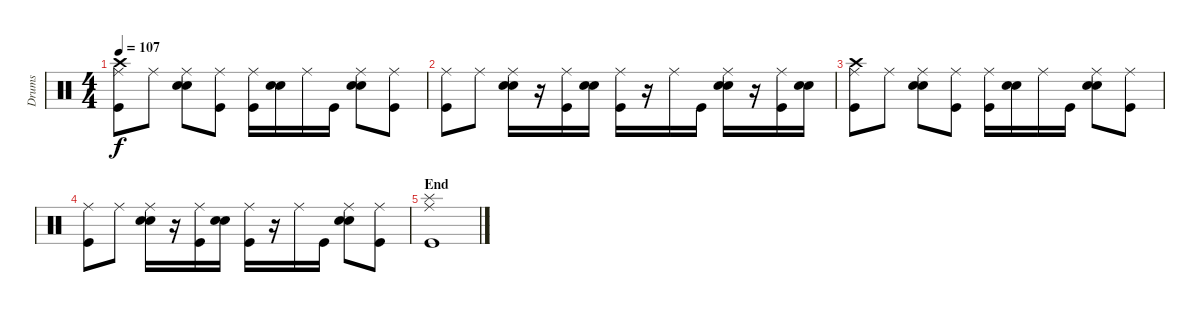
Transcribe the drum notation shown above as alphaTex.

\track ("Drums" "Drums") {instrument percussion}
\staff {score}
\articulation defaults
\ts (4 4)
\tempo 107
\clef neutral
\ks c
("Crash high (hit)" "Ride (middle)" "Kick (hit)").8{dy f} "Ride (middle)".8 ("Ride (middle)" "Electric Snare (hit)" "Snare (hit) 2").8 ("Ride (middle)" "Kick (hit)").8 ("Ride (middle)" "Kick (hit)").16 ("Electric Snare (hit)" "Snare (hit) 2").16 "Ride (middle)".16 "Kick (hit)".16 ("Ride (middle)" "Electric Snare (hit)" "Snare (hit) 2").8 ("Ride (middle)" "Kick (hit)").8 |
("Ride (middle)" "Kick (hit)").8 "Ride (middle)".8 ("Ride (middle)" "Electric Snare (hit)" "Snare (hit) 2").16 r.16 ("Ride (middle)" "Kick (hit)").16 ("Electric Snare (hit)" "Snare (hit) 2").16 ("Ride (middle)" "Kick (hit)").16 r.16 "Ride (middle)".16 "Kick (hit)".16 ("Ride (middle)" "Electric Snare (hit)" "Snare (hit) 2").16 r.16 ("Ride (middle)" "Kick (hit)").16 ("Electric Snare (hit)" "Snare (hit) 2").16 |
("Crash high (hit)" "Ride (middle)" "Kick (hit)").8 "Ride (middle)".8 ("Ride (middle)" "Electric Snare (hit)" "Snare (hit) 2").8 ("Ride (middle)" "Kick (hit)").8 ("Ride (middle)" "Kick (hit)").16 ("Electric Snare (hit)" "Snare (hit) 2").16 "Ride (middle)".16 "Kick (hit)".16 ("Ride (middle)" "Electric Snare (hit)" "Snare (hit) 2").8 ("Ride (middle)" "Kick (hit)").8 |
("Ride (middle)" "Kick (hit)").8 "Ride (middle)".8 ("Ride (middle)" "Electric Snare (hit)" "Snare (hit) 2").16 r.16 ("Ride (middle)" "Kick (hit)").16 ("Electric Snare (hit)" "Snare (hit) 2").16 ("Ride (middle)" "Kick (hit)").16 r.16 "Ride (middle)".16 "Kick (hit)".16 ("Ride (middle)" "Electric Snare (hit)" "Snare (hit) 2").8 ("Ride (middle)" "Kick (hit)").8 |
\section ("" "End")
("Ride (middle)" "Splash (hit)" "Kick (hit)").1
